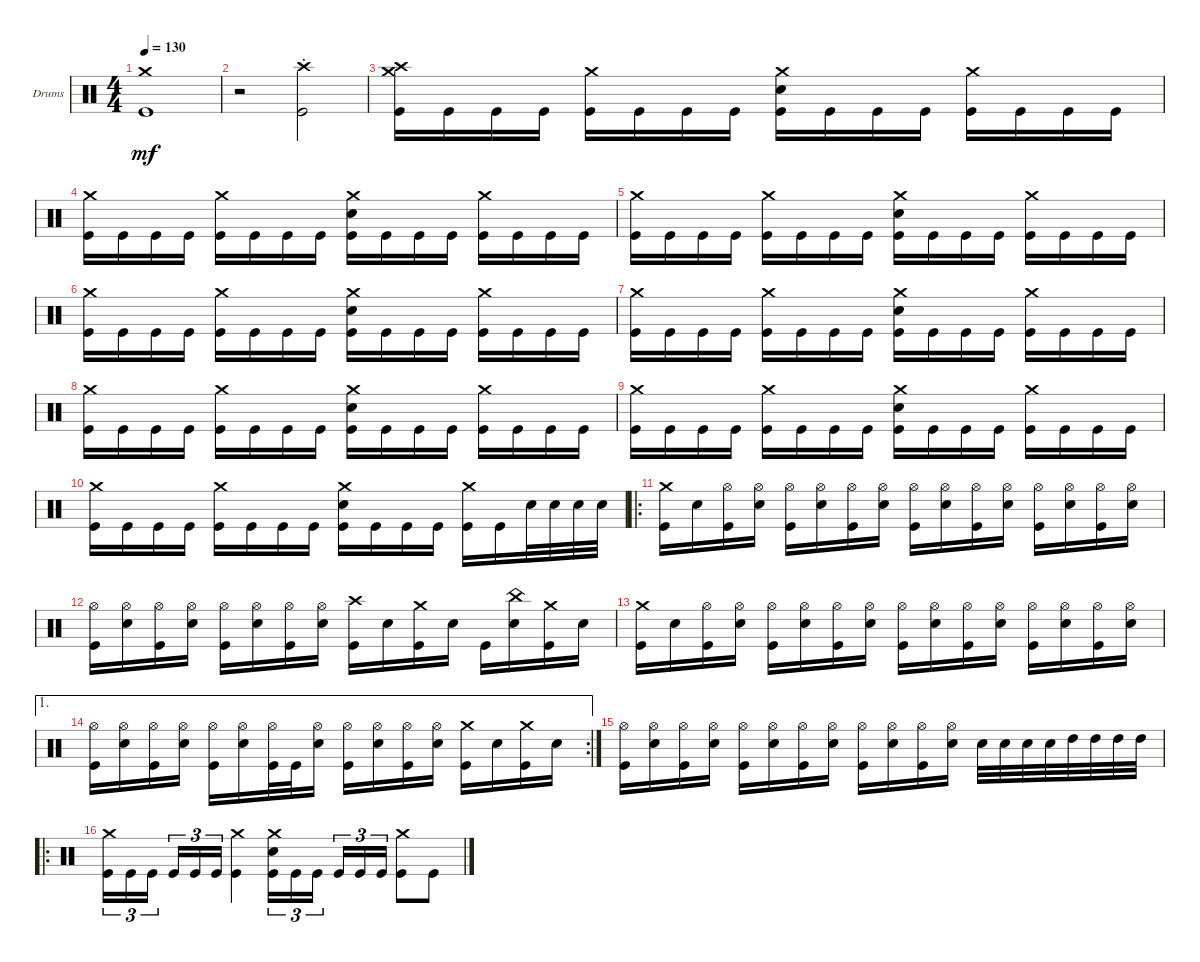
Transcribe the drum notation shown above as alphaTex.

\defaultSystemsLayout 4
\bracketExtendMode groupsimilarinstruments
\firstSystemTrackNameOrientation horizontal
\otherSystemsTrackNameOrientation horizontal
\track ("Drumkit" "Drums") {instrument percussion}
\staff {score}
\articulation defaults
\ts (4 4)
\tempo 130
\clef neutral
\ks c
("Crash medium (hit)" "Kick (hit)").1{dy mf} |
r.2 ("Crash high (hit)"{st} "Kick (hit)").2 |
("Crash high (hit)" "Crash medium (hit)" "Kick (hit)").16 "Kick (hit)".16 "Kick (hit)".16 "Kick (hit)".16 ("Kick (hit)" "Crash medium (hit)").16 "Kick (hit)".16 "Kick (hit)".16 "Kick (hit)".16 ("Kick (hit)" "Crash medium (hit)" "Snare (hit) 2").16 "Kick (hit)".16 "Kick (hit)".16 "Kick (hit)".16 ("Kick (hit)" "Crash medium (hit)").16 "Kick (hit)".16 "Kick (hit)".16 "Kick (hit)".16 |
("Kick (hit)" "Crash medium (hit)").16 "Kick (hit)".16 "Kick (hit)".16 "Kick (hit)".16 ("Kick (hit)" "Crash medium (hit)").16 "Kick (hit)".16 "Kick (hit)".16 "Kick (hit)".16 ("Kick (hit)" "Crash medium (hit)" "Snare (hit) 2").16 "Kick (hit)".16 "Kick (hit)".16 "Kick (hit)".16 ("Kick (hit)" "Crash medium (hit)").16 "Kick (hit)".16 "Kick (hit)".16 "Kick (hit)".16 |
("Kick (hit)" "Crash medium (hit)").16 "Kick (hit)".16 "Kick (hit)".16 "Kick (hit)".16 ("Kick (hit)" "Crash medium (hit)").16 "Kick (hit)".16 "Kick (hit)".16 "Kick (hit)".16 ("Kick (hit)" "Crash medium (hit)" "Snare (hit) 2").16 "Kick (hit)".16 "Kick (hit)".16 "Kick (hit)".16 ("Kick (hit)" "Crash medium (hit)").16 "Kick (hit)".16 "Kick (hit)".16 "Kick (hit)".16 |
("Kick (hit)" "Crash medium (hit)").16 "Kick (hit)".16 "Kick (hit)".16 "Kick (hit)".16 ("Kick (hit)" "Crash medium (hit)").16 "Kick (hit)".16 "Kick (hit)".16 "Kick (hit)".16 ("Kick (hit)" "Crash medium (hit)" "Snare (hit) 2").16 "Kick (hit)".16 "Kick (hit)".16 "Kick (hit)".16 ("Kick (hit)" "Crash medium (hit)").16 "Kick (hit)".16 "Kick (hit)".16 "Kick (hit)".16 |
("Kick (hit)" "Crash medium (hit)").16 "Kick (hit)".16 "Kick (hit)".16 "Kick (hit)".16 ("Kick (hit)" "Crash medium (hit)").16 "Kick (hit)".16 "Kick (hit)".16 "Kick (hit)".16 ("Kick (hit)" "Crash medium (hit)" "Snare (hit) 2").16 "Kick (hit)".16 "Kick (hit)".16 "Kick (hit)".16 ("Kick (hit)" "Crash medium (hit)").16 "Kick (hit)".16 "Kick (hit)".16 "Kick (hit)".16 |
("Kick (hit)" "Crash medium (hit)").16 "Kick (hit)".16 "Kick (hit)".16 "Kick (hit)".16 ("Kick (hit)" "Crash medium (hit)").16 "Kick (hit)".16 "Kick (hit)".16 "Kick (hit)".16 ("Kick (hit)" "Crash medium (hit)" "Snare (hit) 2").16 "Kick (hit)".16 "Kick (hit)".16 "Kick (hit)".16 ("Kick (hit)" "Crash medium (hit)").16 "Kick (hit)".16 "Kick (hit)".16 "Kick (hit)".16 |
("Kick (hit)" "Crash medium (hit)").16 "Kick (hit)".16 "Kick (hit)".16 "Kick (hit)".16 ("Kick (hit)" "Crash medium (hit)").16 "Kick (hit)".16 "Kick (hit)".16 "Kick (hit)".16 ("Kick (hit)" "Crash medium (hit)" "Snare (hit) 2").16 "Kick (hit)".16 "Kick (hit)".16 "Kick (hit)".16 ("Kick (hit)" "Crash medium (hit)").16 "Kick (hit)".16 "Kick (hit)".16 "Kick (hit)".16 |
("Kick (hit)" "Crash medium (hit)").16 "Kick (hit)".16 "Kick (hit)".16 "Kick (hit)".16 ("Kick (hit)" "Crash medium (hit)").16 "Kick (hit)".16 "Kick (hit)".16 "Kick (hit)".16 ("Kick (hit)" "Crash medium (hit)" "Snare (hit) 2").16 "Kick (hit)".16 "Kick (hit)".16 "Kick (hit)".16 ("Kick (hit)" "Crash medium (hit)").16 "Kick (hit)".16 "Snare (hit) 2".32 "Snare (hit) 2".32 "Snare (hit) 2".32 "Snare (hit) 2".32 |
\ro
("Crash medium (hit)" "Kick (hit)").16 "Snare (hit) 2".16 ("Hi-Hat (open)" "Kick (hit)").16 ("Hi-Hat (open)" "Snare (hit) 2").16 ("Hi-Hat (open)" "Kick (hit)").16 ("Hi-Hat (open)" "Snare (hit) 2").16 ("Hi-Hat (open)" "Kick (hit)").16 ("Hi-Hat (open)" "Snare (hit) 2").16 ("Hi-Hat (open)" "Kick (hit)").16 ("Hi-Hat (open)" "Snare (hit) 2").16 ("Hi-Hat (open)" "Kick (hit)").16 ("Hi-Hat (open)" "Snare (hit) 2").16 ("Hi-Hat (open)" "Kick (hit)").16 ("Hi-Hat (open)" "Snare (hit) 2").16 ("Hi-Hat (open)" "Kick (hit)").16 ("Hi-Hat (open)" "Snare (hit) 2").16 |
("Hi-Hat (open)" "Kick (hit)").16 ("Hi-Hat (open)" "Snare (hit) 2").16 ("Hi-Hat (open)" "Kick (hit)").16 ("Hi-Hat (open)" "Snare (hit) 2").16 ("Hi-Hat (open)" "Kick (hit)").16 ("Hi-Hat (open)" "Snare (hit) 2").16 ("Hi-Hat (open)" "Kick (hit)").16 ("Hi-Hat (open)" "Snare (hit) 2").16 ("Kick (hit)" "Crash high (hit)").16 "Snare (hit) 2".16 ("Kick (hit)" "Crash medium (hit)").16 "Snare (hit) 2".16 "Kick (hit)".16 ("Snare (hit) 2" "China (hit)").16 ("Kick (hit)" "Crash medium (hit)").16 "Snare (hit) 2".16 |
("Crash medium (hit)" "Kick (hit)").16 "Snare (hit) 2".16 ("Hi-Hat (open)" "Kick (hit)").16 ("Hi-Hat (open)" "Snare (hit) 2").16 ("Hi-Hat (open)" "Kick (hit)").16 ("Hi-Hat (open)" "Snare (hit) 2").16 ("Hi-Hat (open)" "Kick (hit)").16 ("Hi-Hat (open)" "Snare (hit) 2").16 ("Hi-Hat (open)" "Kick (hit)").16 ("Hi-Hat (open)" "Snare (hit) 2").16 ("Hi-Hat (open)" "Kick (hit)").16 ("Hi-Hat (open)" "Snare (hit) 2").16 ("Hi-Hat (open)" "Kick (hit)").16 ("Hi-Hat (open)" "Snare (hit) 2").16 ("Hi-Hat (open)" "Kick (hit)").16 ("Hi-Hat (open)" "Snare (hit) 2").16 |
\ae 1
\rc 2
("Hi-Hat (open)" "Kick (hit)").16 ("Hi-Hat (open)" "Snare (hit) 2").16 ("Hi-Hat (open)" "Kick (hit)").16 ("Hi-Hat (open)" "Snare (hit) 2").16 ("Hi-Hat (open)" "Kick (hit)").16 ("Hi-Hat (open)" "Snare (hit) 2").16 ("Hi-Hat (open)" "Kick (hit)").32 "Kick (hit)".32 ("Hi-Hat (open)" "Snare (hit) 2").16 ("Hi-Hat (open)" "Kick (hit)").16 ("Hi-Hat (open)" "Snare (hit) 2").16 ("Hi-Hat (open)" "Kick (hit)").16 ("Hi-Hat (open)" "Snare (hit) 2").16 ("Crash medium (hit)" "Kick (hit)").16 "Snare (hit) 2".16 ("Crash medium (hit)" "Kick (hit)").16 "Snare (hit) 2".16 |
("Hi-Hat (open)" "Kick (hit)").16 ("Hi-Hat (open)" "Snare (hit) 2").16 ("Hi-Hat (open)" "Kick (hit)").16 ("Hi-Hat (open)" "Snare (hit) 2").16 ("Hi-Hat (open)" "Kick (hit)").16 ("Hi-Hat (open)" "Snare (hit) 2").16 ("Hi-Hat (open)" "Kick (hit)").16 ("Hi-Hat (open)" "Snare (hit) 2").16 ("Hi-Hat (open)" "Kick (hit)").16 ("Hi-Hat (open)" "Snare (hit) 2").16 ("Hi-Hat (open)" "Kick (hit)").16 ("Hi-Hat (open)" "Snare (hit) 2").16 "Snare (hit) 2".32 "Snare (hit) 2".32 "Snare (hit) 2".32 "Snare (hit) 2".32 "High Tom (hit)".32 "High Tom (hit)".32 "High Tom (hit)".32 "High Tom (hit)".32 |
\ro
("Kick (hit)" "Crash medium (hit)").16{tu (3 2)} "Kick (hit)".16{tu (3 2)} "Kick (hit)".16{tu (3 2)} "Kick (hit)".16{tu (3 2)} "Kick (hit)".16{tu (3 2)} "Kick (hit)".16{tu (3 2)} ("Crash medium (hit)" "Kick (hit)").4 ("Crash medium (hit)" "Kick (hit)" "Snare (hit) 2").16{tu (3 2)} "Kick (hit)".16{tu (3 2)} "Kick (hit)".16{tu (3 2)} "Kick (hit)".16{tu (3 2)} "Kick (hit)".16{tu (3 2)} "Kick (hit)".16{tu (3 2)} ("Kick (hit)" "Crash medium (hit)").8 "Kick (hit)".8
